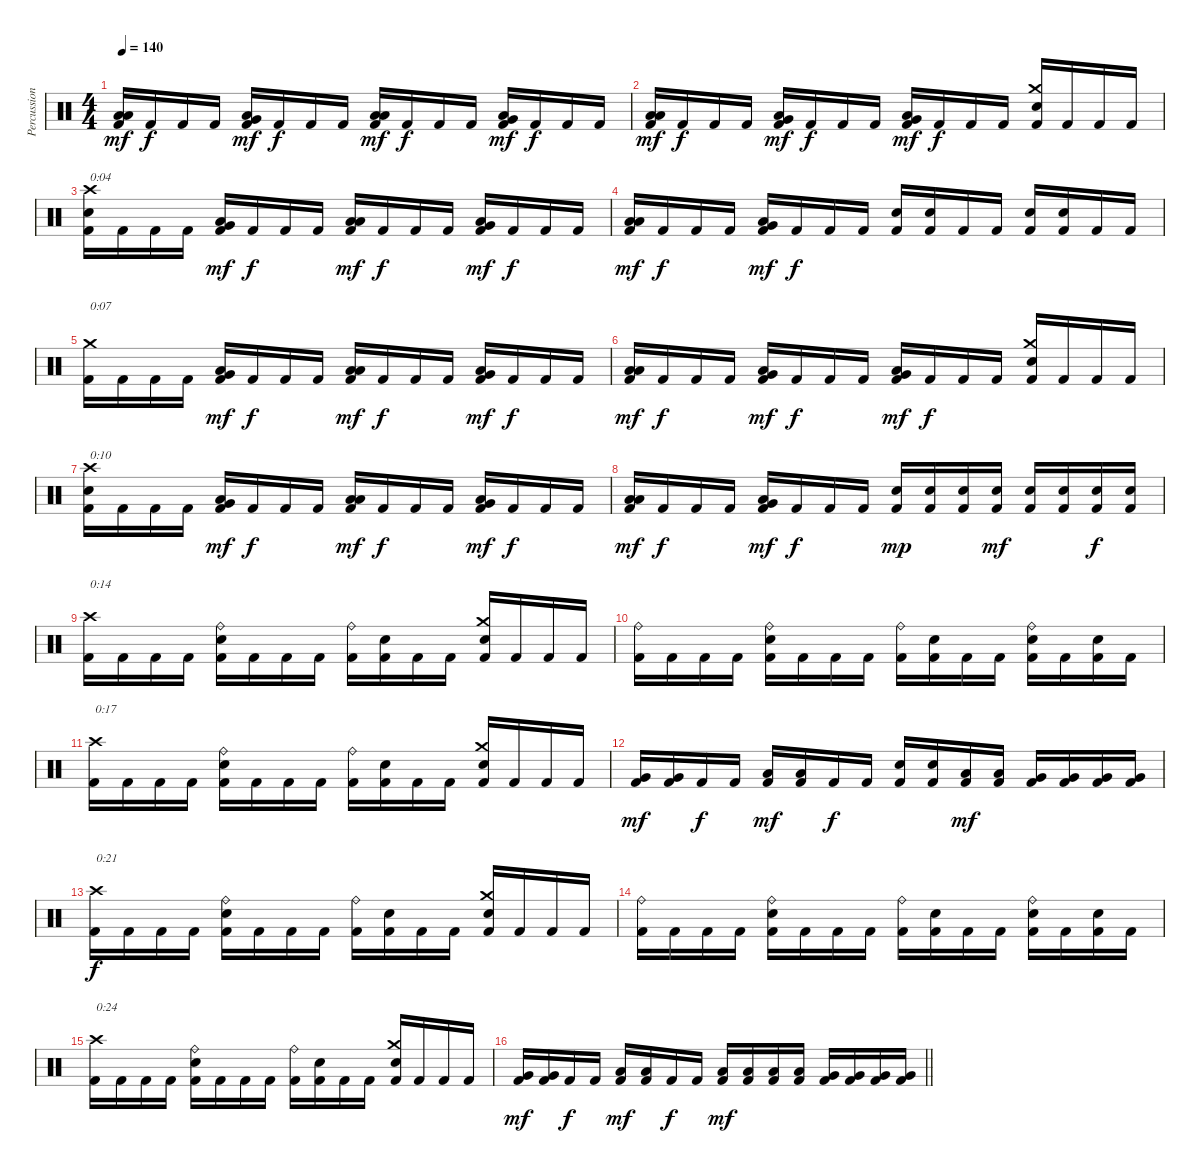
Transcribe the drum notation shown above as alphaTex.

\track ("Percussion" "Percussion") {instrument percussion}
\staff {score}
\articulation defaults
\ts (4 4)
\tempo 140
\clef neutral
\ks c
("Low Floor Tom (hit)" "Low Tom (hit)" "Kick (hit) 2").16{dy mf} "Kick (hit) 2".16{dy f} "Kick (hit) 2".16 "Kick (hit) 2".16 ("Low Floor Tom (hit)" "Very Low Tom (hit)" "Kick (hit) 2").16{dy mf} "Kick (hit) 2".16{dy f} "Kick (hit) 2".16 "Kick (hit) 2".16 ("Low Floor Tom (hit)" "Low Floor Tom (hit)" "Kick (hit) 2").16{dy mf} "Kick (hit) 2".16{dy f} "Kick (hit) 2".16 "Kick (hit) 2".16 ("Low Floor Tom (hit)" "Very Low Tom (hit)" "Kick (hit) 2").16{dy mf} "Kick (hit) 2".16{dy f} "Kick (hit) 2".16 "Kick (hit) 2".16 |
("Low Floor Tom (hit)" "Low Tom (hit)" "Kick (hit) 2").16{dy mf} "Kick (hit) 2".16{dy f} "Kick (hit) 2".16 "Kick (hit) 2".16 ("Low Floor Tom (hit)" "Very Low Tom (hit)" "Kick (hit) 2").16{dy mf} "Kick (hit) 2".16{dy f} "Kick (hit) 2".16 "Kick (hit) 2".16 ("Low Floor Tom (hit)" "Very Low Tom (hit)" "Kick (hit) 2").16{dy mf} "Kick (hit) 2".16{dy f} "Kick (hit) 2".16 "Kick (hit) 2".16 ("Crash medium (hit)" "Electric Snare (hit)" "Kick (hit) 2").16 "Kick (hit) 2".16 "Kick (hit) 2".16 "Kick (hit) 2".16 |
("Crash high (hit)" "Electric Snare (hit)" "Kick (hit) 2").16{txt "0:04"} "Kick (hit) 2".16 "Kick (hit) 2".16 "Kick (hit) 2".16 ("Low Floor Tom (hit)" "Very Low Tom (hit)" "Kick (hit) 2").16{dy mf} "Kick (hit) 2".16{dy f} "Kick (hit) 2".16 "Kick (hit) 2".16 ("Low Floor Tom (hit)" "Low Floor Tom (hit)" "Kick (hit) 2").16{dy mf} "Kick (hit) 2".16{dy f} "Kick (hit) 2".16 "Kick (hit) 2".16 ("Low Floor Tom (hit)" "Very Low Tom (hit)" "Kick (hit) 2").16{dy mf} "Kick (hit) 2".16{dy f} "Kick (hit) 2".16 "Kick (hit) 2".16 |
("Low Floor Tom (hit)" "Low Tom (hit)" "Kick (hit) 2").16{dy mf} "Kick (hit) 2".16{dy f} "Kick (hit) 2".16 "Kick (hit) 2".16 ("Low Floor Tom (hit)" "Very Low Tom (hit)" "Kick (hit) 2").16{dy mf} "Kick (hit) 2".16{dy f} "Kick (hit) 2".16 "Kick (hit) 2".16 ("Electric Snare (hit)" "Kick (hit) 2").16 ("Electric Snare (hit)" "Kick (hit) 2").16 "Kick (hit) 2".16 "Kick (hit) 2".16 ("Electric Snare (hit)" "Kick (hit) 2").16 ("Electric Snare (hit)" "Kick (hit) 2").16 "Kick (hit) 2".16 "Kick (hit) 2".16 |
("Crash medium (hit)" "Kick (hit) 2").16{txt "0:07"} "Kick (hit) 2".16 "Kick (hit) 2".16 "Kick (hit) 2".16 ("Low Floor Tom (hit)" "Very Low Tom (hit)" "Kick (hit) 2").16{dy mf} "Kick (hit) 2".16{dy f} "Kick (hit) 2".16 "Kick (hit) 2".16 ("Low Floor Tom (hit)" "Low Floor Tom (hit)" "Kick (hit) 2").16{dy mf} "Kick (hit) 2".16{dy f} "Kick (hit) 2".16 "Kick (hit) 2".16 ("Low Floor Tom (hit)" "Very Low Tom (hit)" "Kick (hit) 2").16{dy mf} "Kick (hit) 2".16{dy f} "Kick (hit) 2".16 "Kick (hit) 2".16 |
("Low Floor Tom (hit)" "Low Tom (hit)" "Kick (hit) 2").16{dy mf} "Kick (hit) 2".16{dy f} "Kick (hit) 2".16 "Kick (hit) 2".16 ("Low Floor Tom (hit)" "Very Low Tom (hit)" "Kick (hit) 2").16{dy mf} "Kick (hit) 2".16{dy f} "Kick (hit) 2".16 "Kick (hit) 2".16 ("Low Floor Tom (hit)" "Very Low Tom (hit)" "Kick (hit) 2").16{dy mf} "Kick (hit) 2".16{dy f} "Kick (hit) 2".16 "Kick (hit) 2".16 ("Crash medium (hit)" "Electric Snare (hit)" "Kick (hit) 2").16 "Kick (hit) 2".16 "Kick (hit) 2".16 "Kick (hit) 2".16 |
("Crash high (hit)" "Electric Snare (hit)" "Kick (hit) 2").16{txt "0:10"} "Kick (hit) 2".16 "Kick (hit) 2".16 "Kick (hit) 2".16 ("Low Floor Tom (hit)" "Very Low Tom (hit)" "Kick (hit) 2").16{dy mf} "Kick (hit) 2".16{dy f} "Kick (hit) 2".16 "Kick (hit) 2".16 ("Low Floor Tom (hit)" "Low Floor Tom (hit)" "Kick (hit) 2").16{dy mf} "Kick (hit) 2".16{dy f} "Kick (hit) 2".16 "Kick (hit) 2".16 ("Low Floor Tom (hit)" "Very Low Tom (hit)" "Kick (hit) 2").16{dy mf} "Kick (hit) 2".16{dy f} "Kick (hit) 2".16 "Kick (hit) 2".16 |
("Low Floor Tom (hit)" "Low Tom (hit)" "Kick (hit) 2").16{dy mf} "Kick (hit) 2".16{dy f} "Kick (hit) 2".16 "Kick (hit) 2".16 ("Low Floor Tom (hit)" "Very Low Tom (hit)" "Kick (hit) 2").16{dy mf} "Kick (hit) 2".16{dy f} "Kick (hit) 2".16 "Kick (hit) 2".16 ("Electric Snare (hit)" "Kick (hit) 2").16{dy mp} ("Electric Snare (hit)" "Kick (hit) 2").16 ("Electric Snare (hit)" "Kick (hit) 2").16 ("Electric Snare (hit)" "Kick (hit) 2").16{dy mf} ("Electric Snare (hit)" "Kick (hit) 2").16 ("Electric Snare (hit)" "Kick (hit) 2").16 ("Electric Snare (hit)" "Kick (hit) 2").16{dy f} ("Electric Snare (hit)" "Kick (hit) 2").16 |
("Crash high (hit)" "Kick (hit) 2").16{txt "0:14"} "Kick (hit) 2".16 "Kick (hit) 2".16 "Kick (hit) 2".16 ("Ride (bell)" "Electric Snare (hit)" "Kick (hit) 2").16 "Kick (hit) 2".16 "Kick (hit) 2".16 "Kick (hit) 2".16 ("Ride (bell)" "Kick (hit) 2").16 ("Electric Snare (hit)" "Kick (hit) 2").16 "Kick (hit) 2".16 "Kick (hit) 2".16 ("Crash medium (hit)" "Electric Snare (hit)" "Kick (hit) 2").16 "Kick (hit) 2".16 "Kick (hit) 2".16 "Kick (hit) 2".16 |
("Ride (bell)" "Kick (hit) 2").16 "Kick (hit) 2".16 "Kick (hit) 2".16 "Kick (hit) 2".16 ("Ride (bell)" "Electric Snare (hit)" "Kick (hit) 2").16 "Kick (hit) 2".16 "Kick (hit) 2".16 "Kick (hit) 2".16 ("Ride (bell)" "Kick (hit) 2").16 ("Electric Snare (hit)" "Kick (hit) 2").16 "Kick (hit) 2".16 "Kick (hit) 2".16 ("Ride (bell)" "Electric Snare (hit)" "Kick (hit) 2").16 "Kick (hit) 2".16 ("Electric Snare (hit)" "Kick (hit) 2").16 "Kick (hit) 2".16 |
("Crash high (hit)" "Kick (hit) 2").16{txt "0:17"} "Kick (hit) 2".16 "Kick (hit) 2".16 "Kick (hit) 2".16 ("Ride (bell)" "Electric Snare (hit)" "Kick (hit) 2").16 "Kick (hit) 2".16 "Kick (hit) 2".16 "Kick (hit) 2".16 ("Ride (bell)" "Kick (hit) 2").16 ("Electric Snare (hit)" "Kick (hit) 2").16 "Kick (hit) 2".16 "Kick (hit) 2".16 ("Crash medium (hit)" "Electric Snare (hit)" "Kick (hit) 2").16 "Kick (hit) 2".16 "Kick (hit) 2".16 "Kick (hit) 2".16 |
("Very Low Tom (hit)" "Kick (hit) 2").16{dy mf} ("Very Low Tom (hit)" "Kick (hit) 2").16 "Kick (hit) 2".16{dy f} "Kick (hit) 2".16 ("Low Floor Tom (hit)" "Kick (hit) 2").16{dy mf} ("Low Floor Tom (hit)" "Kick (hit) 2").16 "Kick (hit) 2".16{dy f} "Kick (hit) 2".16 ("Electric Snare (hit)" "Kick (hit) 2").16 ("Electric Snare (hit)" "Kick (hit) 2").16 ("Low Tom (hit)" "Kick (hit) 2").16{dy mf} ("Low Tom (hit)" "Kick (hit) 2").16 ("Very Low Tom (hit)" "Kick (hit) 2").16 ("Very Low Tom (hit)" "Kick (hit) 2").16 ("Very Low Tom (hit)" "Kick (hit) 2").16 ("Very Low Tom (hit)" "Kick (hit) 2").16 |
("Crash high (hit)" "Kick (hit) 2").16{txt "0:21" dy f} "Kick (hit) 2".16 "Kick (hit) 2".16 "Kick (hit) 2".16 ("Ride (bell)" "Electric Snare (hit)" "Kick (hit) 2").16 "Kick (hit) 2".16 "Kick (hit) 2".16 "Kick (hit) 2".16 ("Ride (bell)" "Kick (hit) 2").16 ("Electric Snare (hit)" "Kick (hit) 2").16 "Kick (hit) 2".16 "Kick (hit) 2".16 ("Crash medium (hit)" "Electric Snare (hit)" "Kick (hit) 2").16 "Kick (hit) 2".16 "Kick (hit) 2".16 "Kick (hit) 2".16 |
("Ride (bell)" "Kick (hit) 2").16 "Kick (hit) 2".16 "Kick (hit) 2".16 "Kick (hit) 2".16 ("Ride (bell)" "Electric Snare (hit)" "Kick (hit) 2").16 "Kick (hit) 2".16 "Kick (hit) 2".16 "Kick (hit) 2".16 ("Ride (bell)" "Kick (hit) 2").16 ("Electric Snare (hit)" "Kick (hit) 2").16 "Kick (hit) 2".16 "Kick (hit) 2".16 ("Ride (bell)" "Electric Snare (hit)" "Kick (hit) 2").16 "Kick (hit) 2".16 ("Electric Snare (hit)" "Kick (hit) 2").16 "Kick (hit) 2".16 |
("Crash high (hit)" "Kick (hit) 2").16{txt "0:24"} "Kick (hit) 2".16 "Kick (hit) 2".16 "Kick (hit) 2".16 ("Ride (bell)" "Electric Snare (hit)" "Kick (hit) 2").16 "Kick (hit) 2".16 "Kick (hit) 2".16 "Kick (hit) 2".16 ("Ride (bell)" "Kick (hit) 2").16 ("Electric Snare (hit)" "Kick (hit) 2").16 "Kick (hit) 2".16 "Kick (hit) 2".16 ("Crash medium (hit)" "Electric Snare (hit)" "Kick (hit) 2").16 "Kick (hit) 2".16 "Kick (hit) 2".16 "Kick (hit) 2".16 |
\barLineRight lightlight
("Very Low Tom (hit)" "Kick (hit) 2").16{dy mf} ("Very Low Tom (hit)" "Kick (hit) 2").16 "Kick (hit) 2".16{dy f} "Kick (hit) 2".16 ("Low Floor Tom (hit)" "Kick (hit) 2").16{dy mf} ("Low Floor Tom (hit)" "Kick (hit) 2").16 "Kick (hit) 2".16{dy f} "Kick (hit) 2".16 ("Low Tom (hit)" "Kick (hit) 2").16{dy mf} ("Low Tom (hit)" "Kick (hit) 2").16 ("Low Tom (hit)" "Kick (hit) 2").16 ("Low Tom (hit)" "Kick (hit) 2").16 ("Very Low Tom (hit)" "Kick (hit) 2").16 ("Very Low Tom (hit)" "Kick (hit) 2").16 ("Very Low Tom (hit)" "Kick (hit) 2").16 ("Very Low Tom (hit)" "Kick (hit) 2").16
